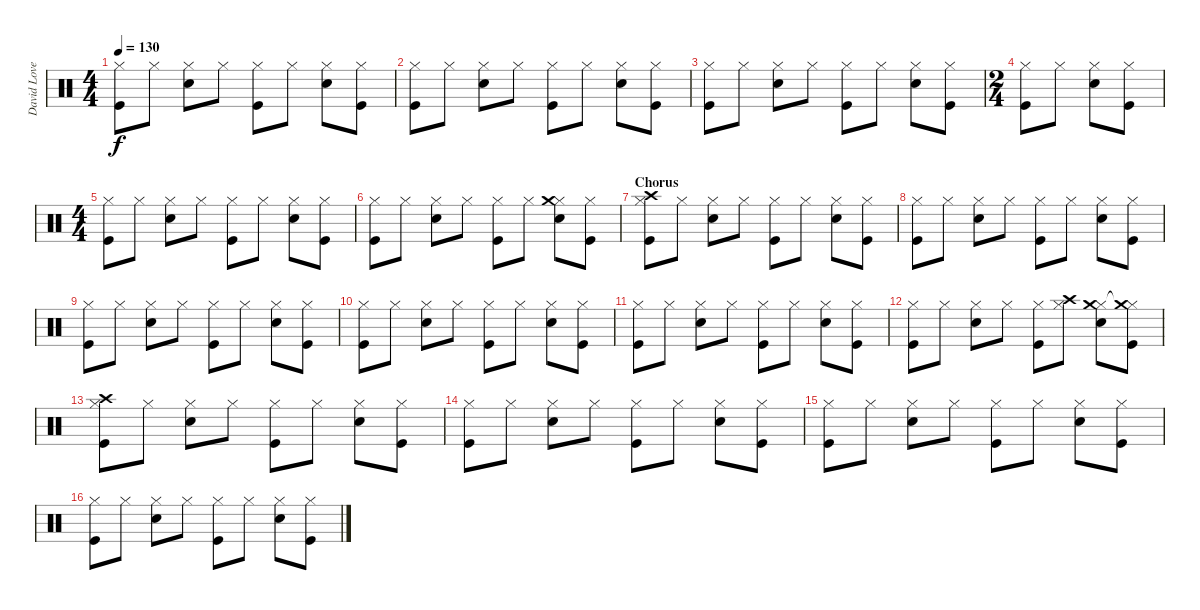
\track ("David Lovering" "David Love") {instrument percussion}
\staff {score}
\articulation defaults
\ts (4 4)
\tempo 130
\clef neutral
\ks c
("Hi-Hat (closed)" "Kick (hit)").8{dy f} "Hi-Hat (closed)".8 ("Hi-Hat (closed)" "Snare (hit) 2").8 "Hi-Hat (closed)".8 ("Hi-Hat (closed)" "Kick (hit)").8 "Hi-Hat (closed)".8 ("Hi-Hat (closed)" "Snare (hit) 2").8 ("Hi-Hat (closed)" "Kick (hit)").8 |
("Hi-Hat (closed)" "Kick (hit)").8 "Hi-Hat (closed)".8 ("Hi-Hat (closed)" "Snare (hit) 2").8 "Hi-Hat (closed)".8 ("Hi-Hat (closed)" "Kick (hit)").8 "Hi-Hat (closed)".8 ("Hi-Hat (closed)" "Snare (hit) 2").8 ("Hi-Hat (closed)" "Kick (hit)").8 |
("Hi-Hat (closed)" "Kick (hit)").8 "Hi-Hat (closed)".8 ("Hi-Hat (closed)" "Snare (hit) 2").8 "Hi-Hat (closed)".8 ("Hi-Hat (closed)" "Kick (hit)").8 "Hi-Hat (closed)".8 ("Hi-Hat (closed)" "Snare (hit) 2").8 ("Hi-Hat (closed)" "Kick (hit)").8 |
\ts (2 4)
("Hi-Hat (closed)" "Kick (hit)").8 "Hi-Hat (closed)".8 ("Hi-Hat (closed)" "Snare (hit) 2").8 ("Hi-Hat (closed)" "Kick (hit)").8 |
\ts (4 4)
("Hi-Hat (closed)" "Kick (hit)").8 "Hi-Hat (closed)".8 ("Hi-Hat (closed)" "Snare (hit) 2").8 "Hi-Hat (closed)".8 ("Hi-Hat (closed)" "Kick (hit)").8 "Hi-Hat (closed)".8 ("Hi-Hat (closed)" "Snare (hit) 2").8 ("Hi-Hat (closed)" "Kick (hit)").8 |
("Hi-Hat (closed)" "Kick (hit)").8 "Hi-Hat (closed)".8 ("Hi-Hat (closed)" "Snare (hit) 2").8 "Hi-Hat (closed)".8 ("Hi-Hat (closed)" "Kick (hit)").8 "Hi-Hat (closed)".8 ("Hi-Hat (closed)" "Crash medium (hit)" "Snare (hit) 2").8 ("Hi-Hat (closed)" "Kick (hit)").8 |
\section ("" "Chorus")
("Hi-Hat (closed)" "Crash high (hit)" "Kick (hit)").8 "Hi-Hat (closed)".8 ("Hi-Hat (closed)" "Snare (hit) 2").8 "Hi-Hat (closed)".8 ("Hi-Hat (closed)" "Kick (hit)").8 "Hi-Hat (closed)".8 ("Hi-Hat (closed)" "Snare (hit) 2").8 ("Hi-Hat (closed)" "Kick (hit)").8 |
("Hi-Hat (closed)" "Kick (hit)").8 "Hi-Hat (closed)".8 ("Hi-Hat (closed)" "Snare (hit) 2").8 "Hi-Hat (closed)".8 ("Hi-Hat (closed)" "Kick (hit)").8 "Hi-Hat (closed)".8 ("Hi-Hat (closed)" "Snare (hit) 2").8 ("Hi-Hat (closed)" "Kick (hit)").8 |
("Hi-Hat (closed)" "Kick (hit)").8 "Hi-Hat (closed)".8 ("Hi-Hat (closed)" "Snare (hit) 2").8 "Hi-Hat (closed)".8 ("Hi-Hat (closed)" "Kick (hit)").8 "Hi-Hat (closed)".8 ("Hi-Hat (closed)" "Snare (hit) 2").8 ("Hi-Hat (closed)" "Kick (hit)").8 |
("Hi-Hat (closed)" "Kick (hit)").8 "Hi-Hat (closed)".8 ("Hi-Hat (closed)" "Snare (hit) 2").8 "Hi-Hat (closed)".8 ("Hi-Hat (closed)" "Kick (hit)").8 "Hi-Hat (closed)".8 ("Hi-Hat (closed)" "Snare (hit) 2").8 ("Hi-Hat (closed)" "Kick (hit)").8 |
("Hi-Hat (closed)" "Kick (hit)").8 "Hi-Hat (closed)".8 ("Hi-Hat (closed)" "Snare (hit) 2").8 "Hi-Hat (closed)".8 ("Hi-Hat (closed)" "Kick (hit)").8 "Hi-Hat (closed)".8 ("Hi-Hat (closed)" "Snare (hit) 2").8 ("Hi-Hat (closed)" "Kick (hit)").8 |
("Hi-Hat (closed)" "Kick (hit)").8 "Hi-Hat (closed)".8 ("Hi-Hat (closed)" "Snare (hit) 2").8 "Hi-Hat (closed)".8 ("Hi-Hat (closed)" "Kick (hit)").8 ("Hi-Hat (closed)" "Crash high (hit)").8 ("Hi-Hat (closed)" "Crash medium (hit)" "Snare (hit) 2").8 ("Hi-Hat (closed)" "Crash medium (hit)"{t} "Kick (hit)").8 |
("Hi-Hat (closed)" "Crash high (hit)" "Kick (hit)").8 "Hi-Hat (closed)".8 ("Hi-Hat (closed)" "Snare (hit) 2").8 "Hi-Hat (closed)".8 ("Hi-Hat (closed)" "Kick (hit)").8 "Hi-Hat (closed)".8 ("Hi-Hat (closed)" "Snare (hit) 2").8 ("Hi-Hat (closed)" "Kick (hit)").8 |
("Hi-Hat (closed)" "Kick (hit)").8 "Hi-Hat (closed)".8 ("Hi-Hat (closed)" "Snare (hit) 2").8 "Hi-Hat (closed)".8 ("Hi-Hat (closed)" "Kick (hit)").8 "Hi-Hat (closed)".8 ("Hi-Hat (closed)" "Snare (hit) 2").8 ("Hi-Hat (closed)" "Kick (hit)").8 |
("Hi-Hat (closed)" "Kick (hit)").8 "Hi-Hat (closed)".8 ("Hi-Hat (closed)" "Snare (hit) 2").8 "Hi-Hat (closed)".8 ("Hi-Hat (closed)" "Kick (hit)").8 "Hi-Hat (closed)".8 ("Hi-Hat (closed)" "Snare (hit) 2").8 ("Hi-Hat (closed)" "Kick (hit)").8 |
("Hi-Hat (closed)" "Kick (hit)").8 "Hi-Hat (closed)".8 ("Hi-Hat (closed)" "Snare (hit) 2").8 "Hi-Hat (closed)".8 ("Hi-Hat (closed)" "Kick (hit)").8 "Hi-Hat (closed)".8 ("Hi-Hat (closed)" "Snare (hit) 2").8 ("Hi-Hat (closed)" "Kick (hit)").8
